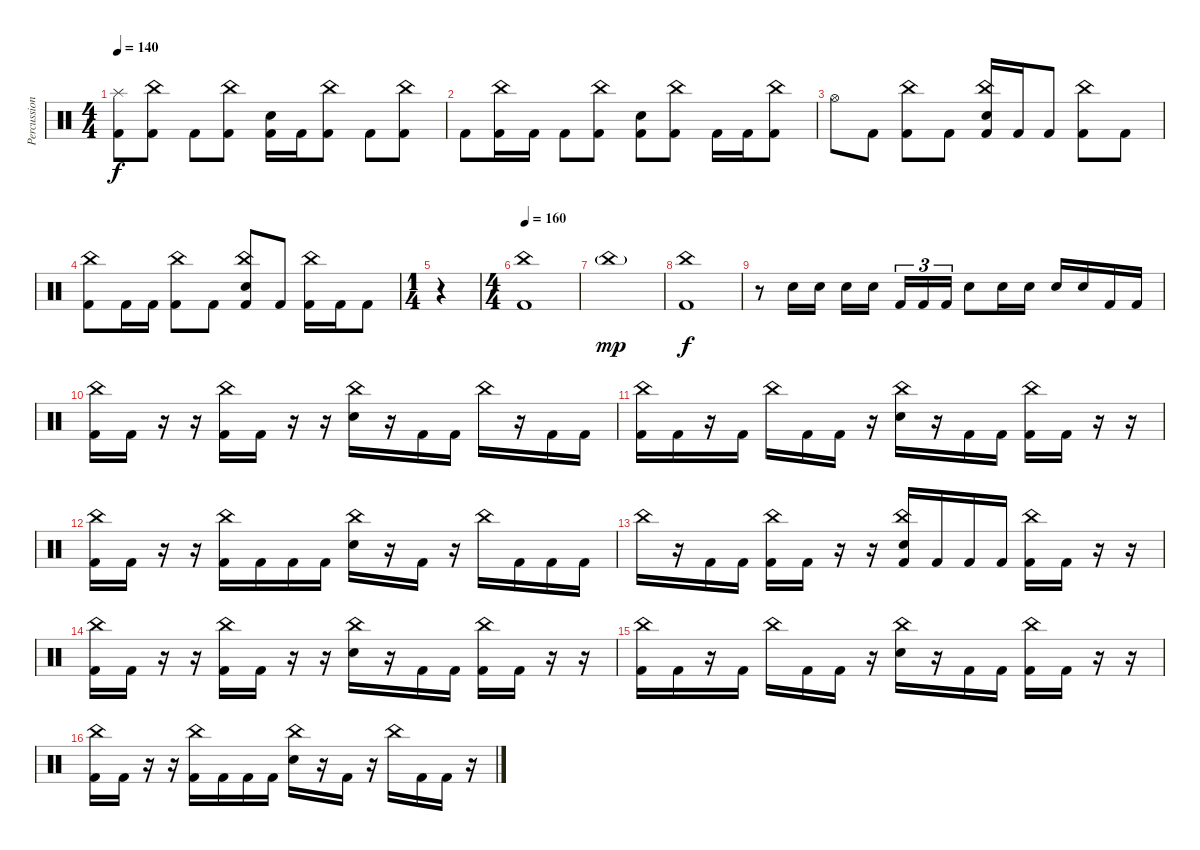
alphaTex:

\track ("Percussion" "Percussion") {instrument percussion}
\staff {score}
\articulation defaults
\ts (4 4)
\tempo 140
\clef neutral
\ks c
("Splash (hit)" "Kick (hit) 2").8{dy f} ("China (hit)" "Kick (hit) 2").8 "Kick (hit) 2".8 ("China (hit)" "Kick (hit) 2").8 ("Snare (hit) 2" "Kick (hit) 2").16 "Kick (hit) 2".16 ("China (hit)" "Kick (hit) 2").8 "Kick (hit) 2".8 ("China (hit)" "Kick (hit) 2").8 |
"Kick (hit) 2".8 ("China (hit)" "Kick (hit) 2").16 "Kick (hit) 2".16 "Kick (hit) 2".8 ("China (hit)" "Kick (hit) 2").8 ("Snare (hit) 2" "Kick (hit) 2").8 ("China (hit)" "Kick (hit) 2").8 "Kick (hit) 2".16 "Kick (hit) 2".16 ("China (hit)" "Kick (hit) 2").8 |
"Hi-Hat (open)".8 "Kick (hit) 2".8 ("China (hit)" "Kick (hit) 2").8 "Kick (hit) 2".8 ("China (hit)" "Snare (hit) 2" "Kick (hit) 2").16 "Kick (hit) 2".16 "Kick (hit) 2".8 ("China (hit)" "Kick (hit) 2").8 "Kick (hit) 2".8 |
("China (hit)" "Kick (hit) 2").8 "Kick (hit) 2".16 "Kick (hit) 2".16 ("China (hit)" "Kick (hit) 2").8 "Kick (hit) 2".8 ("China (hit)" "Snare (hit) 2" "Kick (hit) 2").8 "Kick (hit) 2".8 ("China (hit)" "Kick (hit) 2").16 "Kick (hit) 2".16 "Kick (hit) 2".8 |
\ts (1 4)
r.4 |
\ts (4 4)
\tempo 160
("China (hit)" "Kick (hit) 2").1 |
"China (hit)"{g}.1{dy mp} |
("China (hit)" "Kick (hit) 2").1{dy f} |
r.8 "Snare (hit) 2".16 "Snare (hit) 2".16 "Snare (hit) 2".16 "Snare (hit) 2".16 "Kick (hit) 2".16{tu (3 2)} "Kick (hit) 2".16{tu (3 2)} "Kick (hit) 2".16{tu (3 2)} "Snare (hit) 2".8 "Snare (hit) 2".16 "Snare (hit) 2".16 "Snare (hit) 2".16 "Snare (hit) 2".16 "Kick (hit) 2".16 "Kick (hit) 2".16 |
("China (hit)" "Kick (hit) 2").16 "Kick (hit) 2".16 r.16 r.16 ("China (hit)" "Kick (hit) 2").16 "Kick (hit) 2".16 r.16 r.16 ("China (hit)" "Snare (hit) 2").16 r.16 "Kick (hit) 2".16 "Kick (hit) 2".16 "China (hit)".16 r.16 "Kick (hit) 2".16 "Kick (hit) 2".16 |
("China (hit)" "Kick (hit) 2").16 "Kick (hit) 2".16 r.16 "Kick (hit) 2".16 "China (hit)".16 "Kick (hit) 2".16 "Kick (hit) 2".16 r.16 ("China (hit)" "Snare (hit) 2").16 r.16 "Kick (hit) 2".16 "Kick (hit) 2".16 ("China (hit)" "Kick (hit) 2").16 "Kick (hit) 2".16 r.16 r.16 |
("China (hit)" "Kick (hit) 2").16 "Kick (hit) 2".16 r.16 r.16 ("China (hit)" "Kick (hit) 2").16 "Kick (hit) 2".16 "Kick (hit) 2".16 "Kick (hit) 2".16 ("China (hit)" "Snare (hit) 2").16 r.16 "Kick (hit) 2".16 r.16 "China (hit)".16 "Kick (hit) 2".16 "Kick (hit) 2".16 "Kick (hit) 2".16 |
"China (hit)".16 r.16 "Kick (hit) 2".16 "Kick (hit) 2".16 ("China (hit)" "Kick (hit) 2").16 "Kick (hit) 2".16 r.16 r.16 ("China (hit)" "Snare (hit) 2" "Kick (hit) 2").16 "Kick (hit) 2".16 "Kick (hit) 2".16 "Kick (hit) 2".16 ("China (hit)" "Kick (hit) 2").16 "Kick (hit) 2".16 r.16 r.16 |
("China (hit)" "Kick (hit) 2").16 "Kick (hit) 2".16 r.16 r.16 ("China (hit)" "Kick (hit) 2").16 "Kick (hit) 2".16 r.16 r.16 ("China (hit)" "Snare (hit) 2").16 r.16 "Kick (hit) 2".16 "Kick (hit) 2".16 ("China (hit)" "Kick (hit) 2").16 "Kick (hit) 2".16 r.16 r.16 |
("China (hit)" "Kick (hit) 2").16 "Kick (hit) 2".16 r.16 "Kick (hit) 2".16 "China (hit)".16 "Kick (hit) 2".16 "Kick (hit) 2".16 r.16 ("China (hit)" "Snare (hit) 2").16 r.16 "Kick (hit) 2".16 "Kick (hit) 2".16 ("China (hit)" "Kick (hit) 2").16 "Kick (hit) 2".16 r.16 r.16 |
("China (hit)" "Kick (hit) 2").16 "Kick (hit) 2".16 r.16 r.16 ("China (hit)" "Kick (hit) 2").16 "Kick (hit) 2".16 "Kick (hit) 2".16 "Kick (hit) 2".16 ("China (hit)" "Snare (hit) 2").16 r.16 "Kick (hit) 2".16 r.16 "China (hit)".16 "Kick (hit) 2".16 "Kick (hit) 2".16 r.16
